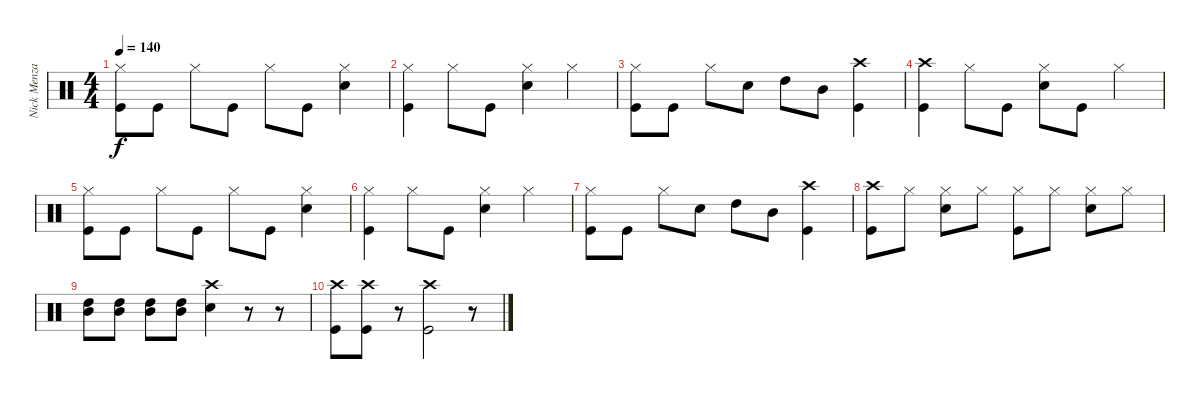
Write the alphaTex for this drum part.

\track ("Nick Menza (Drums)" "Nick Menza") {instrument percussion}
\staff {score}
\articulation defaults
\ts (4 4)
\tempo 140
\clef neutral
\ks c
("Hi-Hat (closed)" "Kick (hit)").8{dy f} "Kick (hit)".8 "Hi-Hat (closed)".8 "Kick (hit)".8 "Hi-Hat (closed)".8 "Kick (hit)".8 ("Hi-Hat (closed)" "Snare (hit) 2").4 |
("Hi-Hat (closed)" "Kick (hit)").4 "Hi-Hat (closed)".8 "Kick (hit)".8 ("Hi-Hat (closed)" "Snare (hit) 2").4 "Hi-Hat (closed)".4 |
("Hi-Hat (closed)" "Kick (hit)").8 "Kick (hit)".8 "Hi-Hat (closed)".8 "Snare (hit) 2".8 "High Tom (hit)".8 "Mid Tom (hit)".8 ("Crash high (hit)" "Kick (hit)").4 |
("Crash high (hit)" "Kick (hit)").4 "Hi-Hat (closed)".8 "Kick (hit)".8 ("Hi-Hat (closed)" "Snare (hit) 2").8 "Kick (hit)".8 "Hi-Hat (closed)".4 |
("Hi-Hat (closed)" "Kick (hit)").8 "Kick (hit)".8 "Hi-Hat (closed)".8 "Kick (hit)".8 "Hi-Hat (closed)".8 "Kick (hit)".8 ("Hi-Hat (closed)" "Snare (hit) 2").4 |
("Hi-Hat (closed)" "Kick (hit)").4 "Hi-Hat (closed)".8 "Kick (hit)".8 ("Hi-Hat (closed)" "Snare (hit) 2").4 "Hi-Hat (closed)".4 |
("Hi-Hat (closed)" "Kick (hit)").8 "Kick (hit)".8 "Hi-Hat (closed)".8 "Snare (hit) 2".8 "High Tom (hit)".8 "Mid Tom (hit)".8 ("Crash high (hit)" "Kick (hit)").4 |
("Crash high (hit)" "Kick (hit)").8 "Hi-Hat (closed)".8 ("Hi-Hat (closed)" "Snare (hit) 2").8 "Hi-Hat (closed)".8 ("Hi-Hat (closed)" "Kick (hit)").8 "Hi-Hat (closed)".8 ("Hi-Hat (closed)" "Snare (hit) 2").8 "Hi-Hat (closed)".8 |
("High Tom (hit)" "Mid Tom (hit)").8 ("High Tom (hit)" "Mid Tom (hit)").8 ("High Tom (hit)" "Mid Tom (hit)").8 ("High Tom (hit)" "Mid Tom (hit)").8 ("Crash high (hit)" "Snare (hit) 2").4 r.8 r.8 |
("Crash high (hit)" "Kick (hit)").8 ("Crash high (hit)" "Kick (hit)").8 r.8 ("Crash high (hit)" "Kick (hit)").2 r.8
